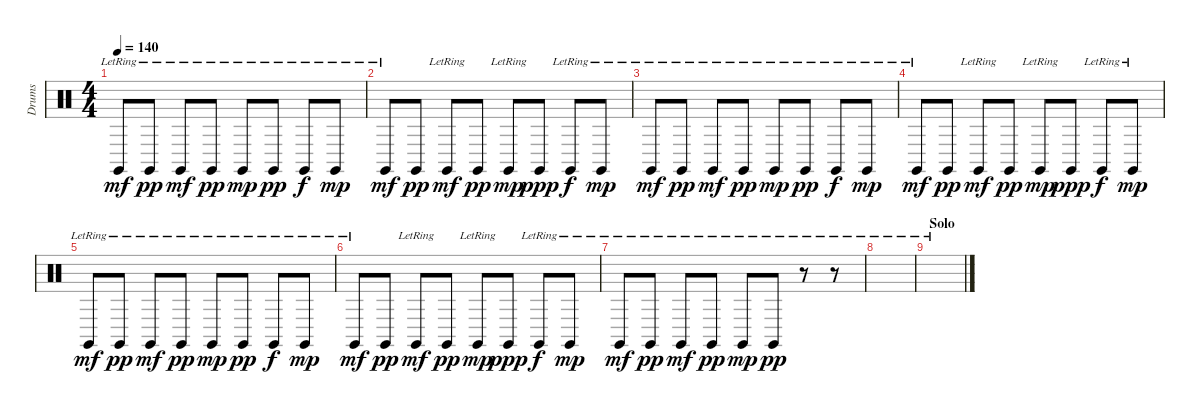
\track ("Drums" "Drums") {instrument percussion}
\staff {score}
\articulation defaults
\ts (4 4)
\tempo 140
\clef neutral
\ks c "Claves (hit)"{lr}.8{dy mf} "Claves (hit)"{lr}.8{dy pp} "Claves (hit)"{lr}.8{dy mf} "Claves (hit)"{lr}.8{dy pp} "Claves (hit)"{lr}.8{dy mp} "Claves (hit)"{lr}.8{dy pp} "Claves (hit)"{lr}.8{dy f} "Claves (hit)"{lr}.8{dy mp}
|
"Claves (hit)"{lr}.8{dy mf} "Claves (hit)".8{dy pp} "Claves (hit)"{lr}.8{dy mf} "Claves (hit)".8{dy pp} "Claves (hit)"{lr}.8{dy mp} "Claves (hit)".8{dy ppp} "Claves (hit)"{lr}.8{dy f} "Claves (hit)"{lr}.8{dy mp} |
"Claves (hit)"{lr}.8{dy mf} "Claves (hit)"{lr}.8{dy pp} "Claves (hit)"{lr}.8{dy mf} "Claves (hit)"{lr}.8{dy pp} "Claves (hit)"{lr}.8{dy mp} "Claves (hit)"{lr}.8{dy pp} "Claves (hit)"{lr}.8{dy f} "Claves (hit)"{lr}.8{dy mp} |
"Claves (hit)"{lr}.8{dy mf} "Claves (hit)".8{dy pp} "Claves (hit)"{lr}.8{dy mf} "Claves (hit)".8{dy pp} "Claves (hit)"{lr}.8{dy mp} "Claves (hit)".8{dy ppp} "Claves (hit)"{lr}.8{dy f} "Claves (hit)"{lr}.8{dy mp} |
"Claves (hit)"{lr}.8{dy mf} "Claves (hit)"{lr}.8{dy pp} "Claves (hit)"{lr}.8{dy mf} "Claves (hit)"{lr}.8{dy pp} "Claves (hit)"{lr}.8{dy mp} "Claves (hit)"{lr}.8{dy pp} "Claves (hit)"{lr}.8{dy f} "Claves (hit)"{lr}.8{dy mp} |
"Claves (hit)"{lr}.8{dy mf} "Claves (hit)".8{dy pp} "Claves (hit)"{lr}.8{dy mf} "Claves (hit)".8{dy pp} "Claves (hit)"{lr}.8{dy mp} "Claves (hit)".8{dy ppp} "Claves (hit)"{lr}.8{dy f} "Claves (hit)"{lr}.8{dy mp} |
"Claves (hit)"{lr}.8{dy mf} "Claves (hit)"{lr}.8{dy pp} "Claves (hit)"{lr}.8{dy mf} "Claves (hit)"{lr}.8{dy pp} "Claves (hit)"{lr}.8{dy mp} "Claves (hit)"{lr}.8{dy pp} r.8 r.8 |
|
\section ("" "Solo")
